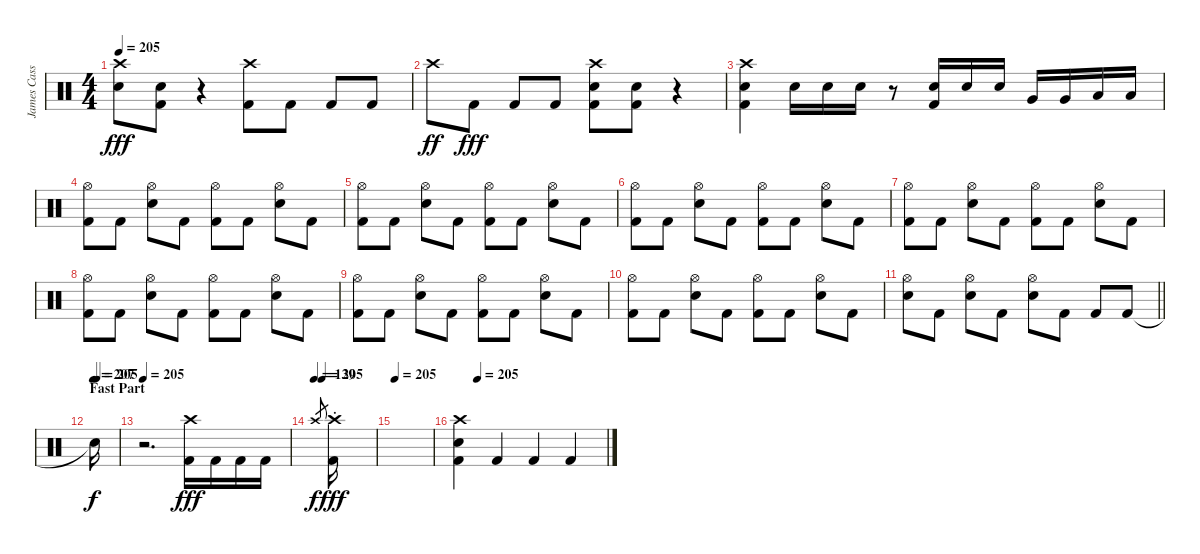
\track ("James Cassels" "James Cass") {instrument percussion}
\staff {score}
\articulation defaults
\ts (4 4)
\tempo 205
\clef neutral
\ks c
("Crash high (hit)" "Electric Snare (hit)").8{dy fff} ("Electric Snare (hit)" "Kick (hit) 2").8 r.4 ("Crash high (hit)" "Kick (hit) 2").8 "Kick (hit) 2".8 "Kick (hit) 2".8 "Kick (hit) 2".8 |
"Crash high (hit)".8{dy ff} "Kick (hit) 2".8{dy fff} "Kick (hit) 2".8 "Kick (hit) 2".8 ("Crash high (hit)" "Electric Snare (hit)" "Kick (hit) 2").8 ("Electric Snare (hit)" "Kick (hit) 2").8 r.4 |
("Crash high (hit)" "Electric Snare (hit)" "Kick (hit) 2").4 "Electric Snare (hit)".16 "Electric Snare (hit)".16 "Electric Snare (hit)".16 r.8 ("Electric Snare (hit)" "Kick (hit) 2").16 "Electric Snare (hit)".16 "Electric Snare (hit)".16 "Very Low Tom (hit)".16 "Very Low Tom (hit)".16 "Low Floor Tom (hit)".16 "Low Floor Tom (hit)".16 |
("Hi-Hat (open)" "Kick (hit) 2").8 "Kick (hit) 2".8 ("Hi-Hat (open)" "Electric Snare (hit)").8 "Kick (hit) 2".8 ("Hi-Hat (open)" "Kick (hit) 2").8 "Kick (hit) 2".8 ("Hi-Hat (open)" "Electric Snare (hit)").8 "Kick (hit) 2".8 |
("Hi-Hat (open)" "Kick (hit) 2").8 "Kick (hit) 2".8 ("Hi-Hat (open)" "Electric Snare (hit)").8 "Kick (hit) 2".8 ("Hi-Hat (open)" "Kick (hit) 2").8 "Kick (hit) 2".8 ("Hi-Hat (open)" "Electric Snare (hit)").8 "Kick (hit) 2".8 |
("Hi-Hat (open)" "Kick (hit) 2").8 "Kick (hit) 2".8 ("Hi-Hat (open)" "Electric Snare (hit)").8 "Kick (hit) 2".8 ("Hi-Hat (open)" "Kick (hit) 2").8 "Kick (hit) 2".8 ("Hi-Hat (open)" "Electric Snare (hit)").8 "Kick (hit) 2".8 |
("Hi-Hat (open)" "Kick (hit) 2").8 "Kick (hit) 2".8 ("Hi-Hat (open)" "Electric Snare (hit)").8 "Kick (hit) 2".8 ("Hi-Hat (open)" "Kick (hit) 2").8 "Kick (hit) 2".8 ("Hi-Hat (open)" "Electric Snare (hit)").8 "Kick (hit) 2".8 |
("Hi-Hat (open)" "Kick (hit) 2").8 "Kick (hit) 2".8 ("Hi-Hat (open)" "Electric Snare (hit)").8 "Kick (hit) 2".8 ("Hi-Hat (open)" "Kick (hit) 2").8 "Kick (hit) 2".8 ("Hi-Hat (open)" "Electric Snare (hit)").8 "Kick (hit) 2".8 |
("Hi-Hat (open)" "Kick (hit) 2").8 "Kick (hit) 2".8 ("Hi-Hat (open)" "Electric Snare (hit)").8 "Kick (hit) 2".8 ("Hi-Hat (open)" "Kick (hit) 2").8 "Kick (hit) 2".8 ("Hi-Hat (open)" "Electric Snare (hit)").8 "Kick (hit) 2".8 |
("Hi-Hat (open)" "Kick (hit) 2").8 "Kick (hit) 2".8 ("Hi-Hat (open)" "Electric Snare (hit)").8 "Kick (hit) 2".8 ("Hi-Hat (open)" "Kick (hit) 2").8 "Kick (hit) 2".8 ("Hi-Hat (open)" "Electric Snare (hit)").8 "Kick (hit) 2".8 |
\barLineRight lightlight
("Hi-Hat (open)" "Electric Snare (hit)").8 "Kick (hit) 2".8 ("Hi-Hat (open)" "Electric Snare (hit)").8 "Kick (hit) 2".8 ("Hi-Hat (open)" "Electric Snare (hit)").8 "Kick (hit) 2".8 "Kick (hit) 2".8 "Kick (hit) 2".8 |
\section ("" "Fast Part")
\tempo 207
\tempo (205 0.125)
"Snare (hit)"{t}.16{dy f} |
\tempo 205
r.2{d} ("Crash high (hit)" "Kick (hit) 2").16{dy fff} "Kick (hit) 2".16 "Kick (hit) 2".16 "Kick (hit) 2".16 |
\tempo 139
\tempo (205 0.125)
"Crash high (hit)".8{gr dy f} ("Crash high (hit)"{st} "Kick (hit) 2").16{dy fff} |
\tempo 205
|
\tempo (205 0.125)
("Crash high (hit)" "Electric Snare (hit)" "Kick (hit) 2").4 "Kick (hit) 2".4 "Kick (hit) 2".4 "Kick (hit) 2".4
